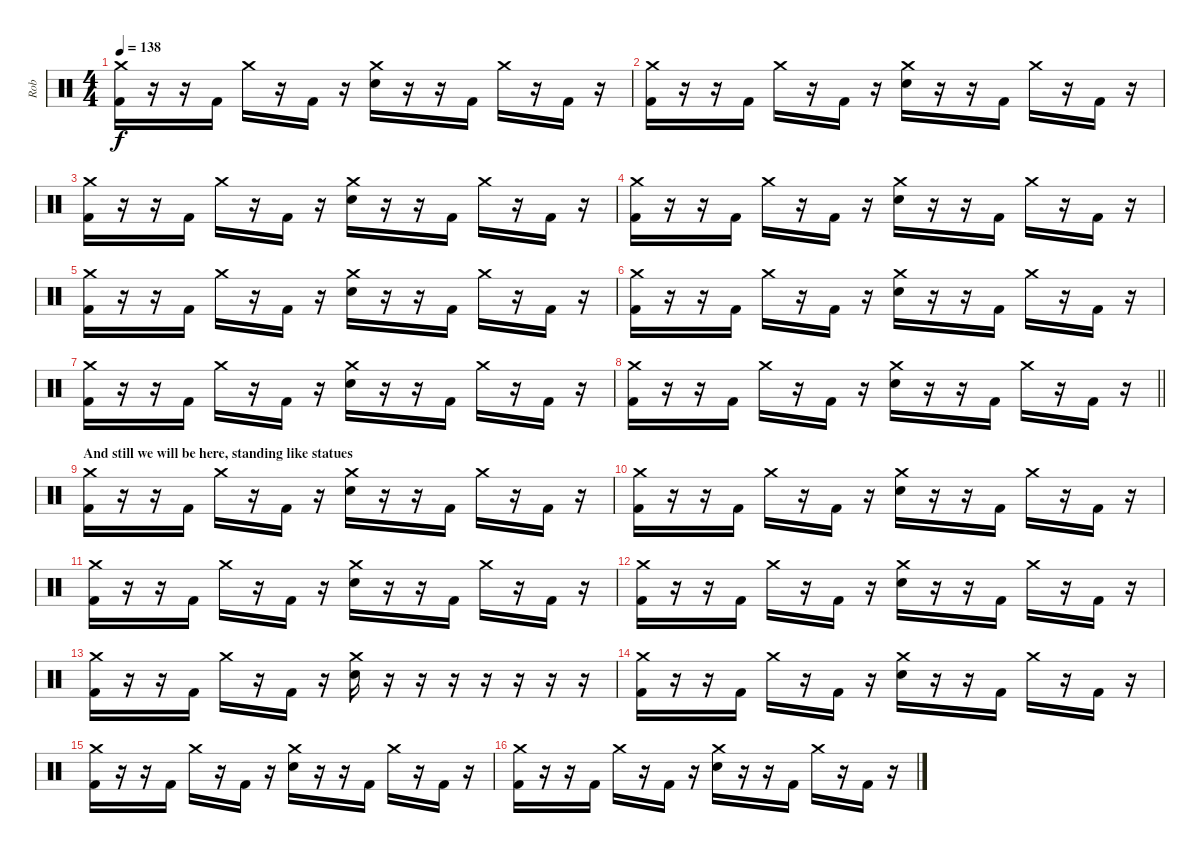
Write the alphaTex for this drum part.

\track ("Rob" "Rob") {instrument percussion}
\staff {score}
\articulation defaults
\ts (4 4)
\tempo 138
\clef neutral
\ks c
("Crash medium (hit)" "Kick (hit) 2").16{dy f} r.16 r.16 "Kick (hit) 2".16 "Crash medium (hit)".16 r.16 "Kick (hit) 2".16 r.16 ("Crash medium (hit)" "Electric Snare (hit)").16 r.16 r.16 "Kick (hit) 2".16 "Crash medium (hit)".16 r.16 "Kick (hit) 2".16 r.16 |
("Crash medium (hit)" "Kick (hit) 2").16 r.16 r.16 "Kick (hit) 2".16 "Crash medium (hit)".16 r.16 "Kick (hit) 2".16 r.16 ("Crash medium (hit)" "Electric Snare (hit)").16 r.16 r.16 "Kick (hit) 2".16 "Crash medium (hit)".16 r.16 "Kick (hit) 2".16 r.16 |
("Crash medium (hit)" "Kick (hit) 2").16 r.16 r.16 "Kick (hit) 2".16 "Crash medium (hit)".16 r.16 "Kick (hit) 2".16 r.16 ("Crash medium (hit)" "Electric Snare (hit)").16 r.16 r.16 "Kick (hit) 2".16 "Crash medium (hit)".16 r.16 "Kick (hit) 2".16 r.16 |
("Crash medium (hit)" "Kick (hit) 2").16 r.16 r.16 "Kick (hit) 2".16 "Crash medium (hit)".16 r.16 "Kick (hit) 2".16 r.16 ("Crash medium (hit)" "Electric Snare (hit)").16 r.16 r.16 "Kick (hit) 2".16 "Crash medium (hit)".16 r.16 "Kick (hit) 2".16 r.16 |
("Crash medium (hit)" "Kick (hit) 2").16 r.16 r.16 "Kick (hit) 2".16 "Crash medium (hit)".16 r.16 "Kick (hit) 2".16 r.16 ("Crash medium (hit)" "Electric Snare (hit)").16 r.16 r.16 "Kick (hit) 2".16 "Crash medium (hit)".16 r.16 "Kick (hit) 2".16 r.16 |
("Crash medium (hit)" "Kick (hit) 2").16 r.16 r.16 "Kick (hit) 2".16 "Crash medium (hit)".16 r.16 "Kick (hit) 2".16 r.16 ("Crash medium (hit)" "Electric Snare (hit)").16 r.16 r.16 "Kick (hit) 2".16 "Crash medium (hit)".16 r.16 "Kick (hit) 2".16 r.16 |
("Crash medium (hit)" "Kick (hit) 2").16 r.16 r.16 "Kick (hit) 2".16 "Crash medium (hit)".16 r.16 "Kick (hit) 2".16 r.16 ("Crash medium (hit)" "Electric Snare (hit)").16 r.16 r.16 "Kick (hit) 2".16 "Crash medium (hit)".16 r.16 "Kick (hit) 2".16 r.16 |
\barLineRight lightlight
("Crash medium (hit)" "Kick (hit) 2").16 r.16 r.16 "Kick (hit) 2".16 "Crash medium (hit)".16 r.16 "Kick (hit) 2".16 r.16 ("Crash medium (hit)" "Electric Snare (hit)").16 r.16 r.16 "Kick (hit) 2".16 "Crash medium (hit)".16 r.16 "Kick (hit) 2".16 r.16 |
\section ("" "And still we will be here, standing like statues")
("Crash medium (hit)" "Kick (hit) 2").16 r.16 r.16 "Kick (hit) 2".16 "Crash medium (hit)".16 r.16 "Kick (hit) 2".16 r.16 ("Crash medium (hit)" "Electric Snare (hit)").16 r.16 r.16 "Kick (hit) 2".16 "Crash medium (hit)".16 r.16 "Kick (hit) 2".16 r.16 |
("Crash medium (hit)" "Kick (hit) 2").16 r.16 r.16 "Kick (hit) 2".16 "Crash medium (hit)".16 r.16 "Kick (hit) 2".16 r.16 ("Crash medium (hit)" "Electric Snare (hit)").16 r.16 r.16 "Kick (hit) 2".16 "Crash medium (hit)".16 r.16 "Kick (hit) 2".16 r.16 |
("Crash medium (hit)" "Kick (hit) 2").16 r.16 r.16 "Kick (hit) 2".16 "Crash medium (hit)".16 r.16 "Kick (hit) 2".16 r.16 ("Crash medium (hit)" "Electric Snare (hit)").16 r.16 r.16 "Kick (hit) 2".16 "Crash medium (hit)".16 r.16 "Kick (hit) 2".16 r.16 |
("Crash medium (hit)" "Kick (hit) 2").16 r.16 r.16 "Kick (hit) 2".16 "Crash medium (hit)".16 r.16 "Kick (hit) 2".16 r.16 ("Crash medium (hit)" "Electric Snare (hit)").16 r.16 r.16 "Kick (hit) 2".16 "Crash medium (hit)".16 r.16 "Kick (hit) 2".16 r.16 |
("Crash medium (hit)" "Kick (hit) 2").16 r.16 r.16 "Kick (hit) 2".16 "Crash medium (hit)".16 r.16 "Kick (hit) 2".16 r.16 ("Crash medium (hit)" "Electric Snare (hit)").16 r.16 r.16 r.16 r.16 r.16 r.16 r.16 |
("Crash medium (hit)" "Kick (hit) 2").16 r.16 r.16 "Kick (hit) 2".16 "Crash medium (hit)".16 r.16 "Kick (hit) 2".16 r.16 ("Crash medium (hit)" "Electric Snare (hit)").16 r.16 r.16 "Kick (hit) 2".16 "Crash medium (hit)".16 r.16 "Kick (hit) 2".16 r.16 |
("Crash medium (hit)" "Kick (hit) 2").16 r.16 r.16 "Kick (hit) 2".16 "Crash medium (hit)".16 r.16 "Kick (hit) 2".16 r.16 ("Crash medium (hit)" "Electric Snare (hit)").16 r.16 r.16 "Kick (hit) 2".16 "Crash medium (hit)".16 r.16 "Kick (hit) 2".16 r.16 |
("Crash medium (hit)" "Kick (hit) 2").16 r.16 r.16 "Kick (hit) 2".16 "Crash medium (hit)".16 r.16 "Kick (hit) 2".16 r.16 ("Crash medium (hit)" "Electric Snare (hit)").16 r.16 r.16 "Kick (hit) 2".16 "Crash medium (hit)".16 r.16 "Kick (hit) 2".16 r.16
